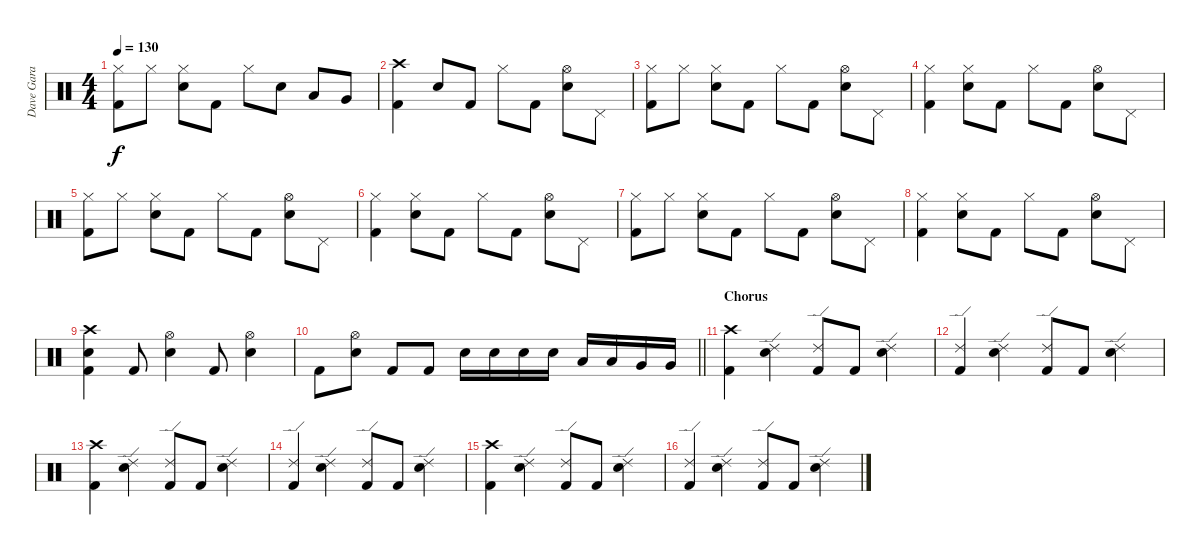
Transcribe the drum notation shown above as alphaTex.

\track ("Dave Gara" "Dave Gara") {instrument percussion}
\staff {score}
\articulation defaults
\ts (4 4)
\tempo 130
\clef neutral
\ks c
("Hi-Hat (closed)" "Kick (hit) 2").8{dy f} "Hi-Hat (closed)".8 ("Hi-Hat (closed)" "Electric Snare (hit)").8 "Kick (hit) 2".8 "Hi-Hat (closed)".8 "Electric Snare (hit)".8 "Low Tom (hit)".8 "Very Low Tom (hit)".8 |
("Crash high (hit)" "Kick (hit) 2").4 "Electric Snare (hit)".8 "Kick (hit) 2".8 "Hi-Hat (closed)".8 "Kick (hit) 2".8 ("Hi-Hat (open)" "Electric Snare (hit)").8 "Pedal Hi-Hat (hit)".8 |
("Hi-Hat (closed)" "Kick (hit) 2").8 "Hi-Hat (closed)".8 ("Hi-Hat (closed)" "Electric Snare (hit)").8 "Kick (hit) 2".8 "Hi-Hat (closed)".8 "Kick (hit) 2".8 ("Hi-Hat (open)" "Electric Snare (hit)").8 "Pedal Hi-Hat (hit)".8 |
("Hi-Hat (closed)" "Kick (hit) 2").4 ("Hi-Hat (closed)" "Electric Snare (hit)").8 "Kick (hit) 2".8 "Hi-Hat (closed)".8 "Kick (hit) 2".8 ("Hi-Hat (open)" "Electric Snare (hit)").8 "Pedal Hi-Hat (hit)".8 |
("Hi-Hat (closed)" "Kick (hit) 2").8 "Hi-Hat (closed)".8 ("Hi-Hat (closed)" "Electric Snare (hit)").8 "Kick (hit) 2".8 "Hi-Hat (closed)".8 "Kick (hit) 2".8 ("Hi-Hat (open)" "Electric Snare (hit)").8 "Pedal Hi-Hat (hit)".8 |
("Hi-Hat (closed)" "Kick (hit) 2").4 ("Hi-Hat (closed)" "Electric Snare (hit)").8 "Kick (hit) 2".8 "Hi-Hat (closed)".8 "Kick (hit) 2".8 ("Hi-Hat (open)" "Electric Snare (hit)").8 "Pedal Hi-Hat (hit)".8 |
("Hi-Hat (closed)" "Kick (hit) 2").8 "Hi-Hat (closed)".8 ("Hi-Hat (closed)" "Electric Snare (hit)").8 "Kick (hit) 2".8 "Hi-Hat (closed)".8 "Kick (hit) 2".8 ("Hi-Hat (open)" "Electric Snare (hit)").8 "Pedal Hi-Hat (hit)".8 |
("Hi-Hat (closed)" "Kick (hit) 2").4 ("Hi-Hat (closed)" "Electric Snare (hit)").8 "Kick (hit) 2".8 "Hi-Hat (closed)".8 "Kick (hit) 2".8 ("Hi-Hat (open)" "Electric Snare (hit)").8 "Pedal Hi-Hat (hit)".8 |
("Crash high (hit)" "Electric Snare (hit)" "Kick (hit) 2").4 "Kick (hit) 2".8 ("Hi-Hat (open)" "Electric Snare (hit)").4 "Kick (hit) 2".8 ("Hi-Hat (open)" "Electric Snare (hit)").4 |
\barLineRight lightlight "Kick (hit) 2".8
("Hi-Hat (open)" "Electric Snare (hit)").8 "Kick (hit) 2".8 "Kick (hit) 2".8 "Electric Snare (hit)".16 "Electric Snare (hit)".16 "Electric Snare (hit)".16 "Electric Snare (hit)".16 "Low Tom (hit)".16 "Low Tom (hit)".16 "Very Low Tom (hit)".16 "Very Low Tom (hit)".16 |
\section ("" "Chorus")
("Crash high (hit)" "Kick (hit) 2").4 ("Ride (edge) 2" "Electric Snare (hit)").4 ("Ride (edge) 2" "Kick (hit) 2").8 "Kick (hit) 2".8 ("Ride (edge) 2" "Electric Snare (hit)").4 |
("Ride (edge) 2" "Kick (hit) 2").4 ("Ride (edge) 2" "Electric Snare (hit)").4 ("Ride (edge) 2" "Kick (hit) 2").8 "Kick (hit) 2".8 ("Ride (edge) 2" "Electric Snare (hit)").4 |
("Crash high (hit)" "Kick (hit) 2").4 ("Ride (edge) 2" "Electric Snare (hit)").4 ("Ride (edge) 2" "Kick (hit) 2").8 "Kick (hit) 2".8 ("Ride (edge) 2" "Electric Snare (hit)").4 |
("Ride (edge) 2" "Kick (hit) 2").4 ("Ride (edge) 2" "Electric Snare (hit)").4 ("Ride (edge) 2" "Kick (hit) 2").8 "Kick (hit) 2".8 ("Ride (edge) 2" "Electric Snare (hit)").4 |
("Crash high (hit)" "Kick (hit) 2").4 ("Ride (edge) 2" "Electric Snare (hit)").4 ("Ride (edge) 2" "Kick (hit) 2").8 "Kick (hit) 2".8 ("Ride (edge) 2" "Electric Snare (hit)").4 |
("Ride (edge) 2" "Kick (hit) 2").4 ("Ride (edge) 2" "Electric Snare (hit)").4 ("Ride (edge) 2" "Kick (hit) 2").8 "Kick (hit) 2".8 ("Ride (edge) 2" "Electric Snare (hit)").4
